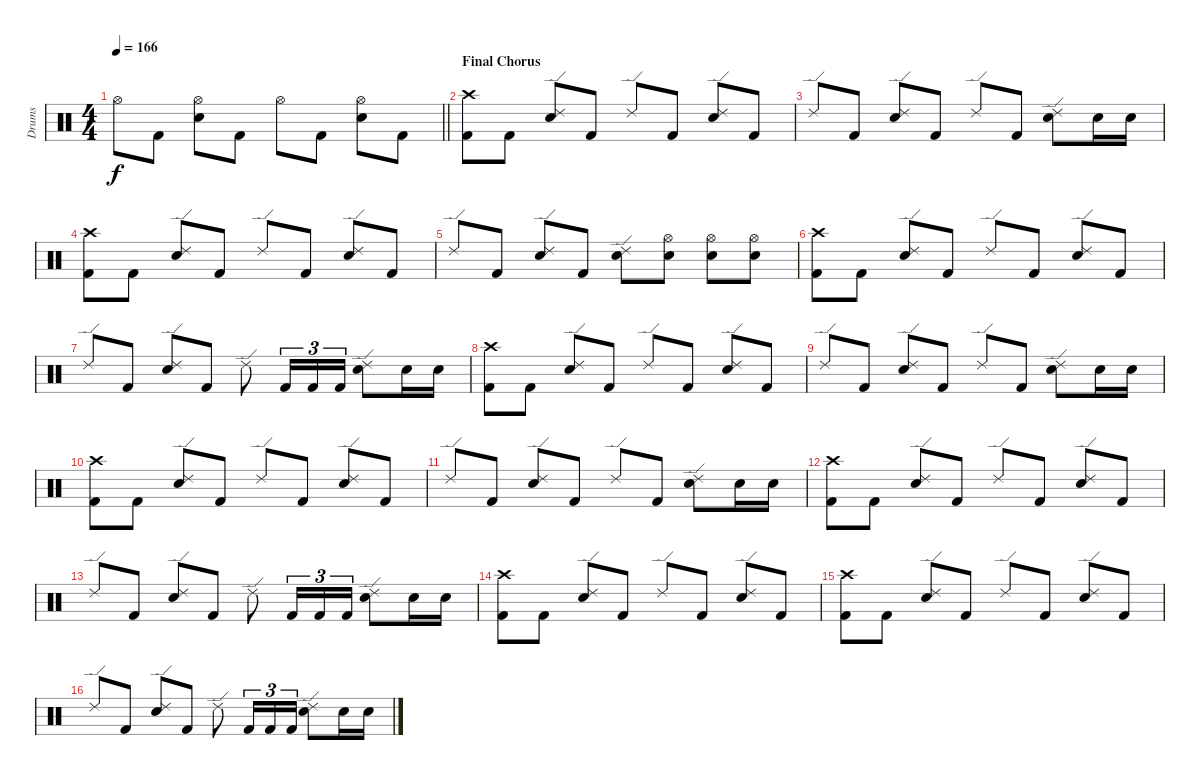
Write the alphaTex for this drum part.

\track ("Drums" "Drums") {instrument percussion}
\staff {score}
\articulation defaults
\ts (4 4)
\tempo 166
\clef neutral
\barLineRight lightlight
\ks c "Hi-Hat (open)".8{dy f} "Kick (hit) 2".8
("Hi-Hat (open)" "Electric Snare (hit)").8 "Kick (hit) 2".8 "Hi-Hat (open)".8 "Kick (hit) 2".8 ("Hi-Hat (open)" "Electric Snare (hit)").8 "Kick (hit) 2".8 |
\section ("" "Final Chorus")
("Crash high (hit)" "Kick (hit) 2").8 "Kick (hit) 2".8 ("Ride (edge) 2" "Electric Snare (hit)").8 "Kick (hit) 2".8 "Ride (edge) 2".8 "Kick (hit) 2".8 ("Ride (edge) 2" "Electric Snare (hit)").8 "Kick (hit) 2".8 |
"Ride (edge) 2".8 "Kick (hit) 2".8 ("Ride (edge) 2" "Electric Snare (hit)").8 "Kick (hit) 2".8 "Ride (edge) 2".8 "Kick (hit) 2".8 ("Ride (edge) 2" "Electric Snare (hit)").8 "Electric Snare (hit)".16 "Electric Snare (hit)".16 |
("Crash high (hit)" "Kick (hit) 2").8 "Kick (hit) 2".8 ("Ride (edge) 2" "Electric Snare (hit)").8 "Kick (hit) 2".8 "Ride (edge) 2".8 "Kick (hit) 2".8 ("Ride (edge) 2" "Electric Snare (hit)").8 "Kick (hit) 2".8 |
"Ride (edge) 2".8 "Kick (hit) 2".8 ("Ride (edge) 2" "Electric Snare (hit)").8 "Kick (hit) 2".8 ("Ride (edge) 2" "Electric Snare (hit)").8 ("Hi-Hat (open)" "Electric Snare (hit)").8 ("Hi-Hat (open)" "Electric Snare (hit)").8 ("Hi-Hat (open)" "Electric Snare (hit)").8 |
("Crash high (hit)" "Kick (hit) 2").8 "Kick (hit) 2".8 ("Ride (edge) 2" "Electric Snare (hit)").8 "Kick (hit) 2".8 "Ride (edge) 2".8 "Kick (hit) 2".8 ("Ride (edge) 2" "Electric Snare (hit)").8 "Kick (hit) 2".8 |
"Ride (edge) 2".8 "Kick (hit) 2".8 ("Ride (edge) 2" "Electric Snare (hit)").8 "Kick (hit) 2".8 "Ride (edge) 2".8 "Kick (hit) 2".16{tu (3 2)} "Kick (hit) 2".16{tu (3 2)} "Kick (hit) 2".16{tu (3 2)} ("Ride (edge) 2" "Electric Snare (hit)").8 "Electric Snare (hit)".16 "Electric Snare (hit)".16 |
("Crash high (hit)" "Kick (hit) 2").8 "Kick (hit) 2".8 ("Ride (edge) 2" "Electric Snare (hit)").8 "Kick (hit) 2".8 "Ride (edge) 2".8 "Kick (hit) 2".8 ("Ride (edge) 2" "Electric Snare (hit)").8 "Kick (hit) 2".8 |
"Ride (edge) 2".8 "Kick (hit) 2".8 ("Ride (edge) 2" "Electric Snare (hit)").8 "Kick (hit) 2".8 "Ride (edge) 2".8 "Kick (hit) 2".8 ("Ride (edge) 2" "Electric Snare (hit)").8 "Electric Snare (hit)".16 "Electric Snare (hit)".16 |
("Crash high (hit)" "Kick (hit) 2").8 "Kick (hit) 2".8 ("Ride (edge) 2" "Electric Snare (hit)").8 "Kick (hit) 2".8 "Ride (edge) 2".8 "Kick (hit) 2".8 ("Ride (edge) 2" "Electric Snare (hit)").8 "Kick (hit) 2".8 |
"Ride (edge) 2".8 "Kick (hit) 2".8 ("Ride (edge) 2" "Electric Snare (hit)").8 "Kick (hit) 2".8 "Ride (edge) 2".8 "Kick (hit) 2".8 ("Ride (edge) 2" "Electric Snare (hit)").8 "Electric Snare (hit)".16 "Electric Snare (hit)".16 |
("Crash high (hit)" "Kick (hit) 2").8 "Kick (hit) 2".8 ("Ride (edge) 2" "Electric Snare (hit)").8 "Kick (hit) 2".8 "Ride (edge) 2".8 "Kick (hit) 2".8 ("Ride (edge) 2" "Electric Snare (hit)").8 "Kick (hit) 2".8 |
"Ride (edge) 2".8 "Kick (hit) 2".8 ("Ride (edge) 2" "Electric Snare (hit)").8 "Kick (hit) 2".8 "Ride (edge) 2".8 "Kick (hit) 2".16{tu (3 2)} "Kick (hit) 2".16{tu (3 2)} "Kick (hit) 2".16{tu (3 2)} ("Ride (edge) 2" "Electric Snare (hit)").8 "Electric Snare (hit)".16 "Electric Snare (hit)".16 |
("Crash high (hit)" "Kick (hit) 2").8 "Kick (hit) 2".8 ("Ride (edge) 2" "Electric Snare (hit)").8 "Kick (hit) 2".8 "Ride (edge) 2".8 "Kick (hit) 2".8 ("Ride (edge) 2" "Electric Snare (hit)").8 "Kick (hit) 2".8 |
("Crash high (hit)" "Kick (hit) 2").8 "Kick (hit) 2".8 ("Ride (edge) 2" "Electric Snare (hit)").8 "Kick (hit) 2".8 "Ride (edge) 2".8 "Kick (hit) 2".8 ("Ride (edge) 2" "Electric Snare (hit)").8 "Kick (hit) 2".8 |
"Ride (edge) 2".8 "Kick (hit) 2".8 ("Ride (edge) 2" "Electric Snare (hit)").8 "Kick (hit) 2".8 "Ride (edge) 2".8 "Kick (hit) 2".16{tu (3 2)} "Kick (hit) 2".16{tu (3 2)} "Kick (hit) 2".16{tu (3 2)} ("Ride (edge) 2" "Electric Snare (hit)").8 "Electric Snare (hit)".16 "Electric Snare (hit)".16
